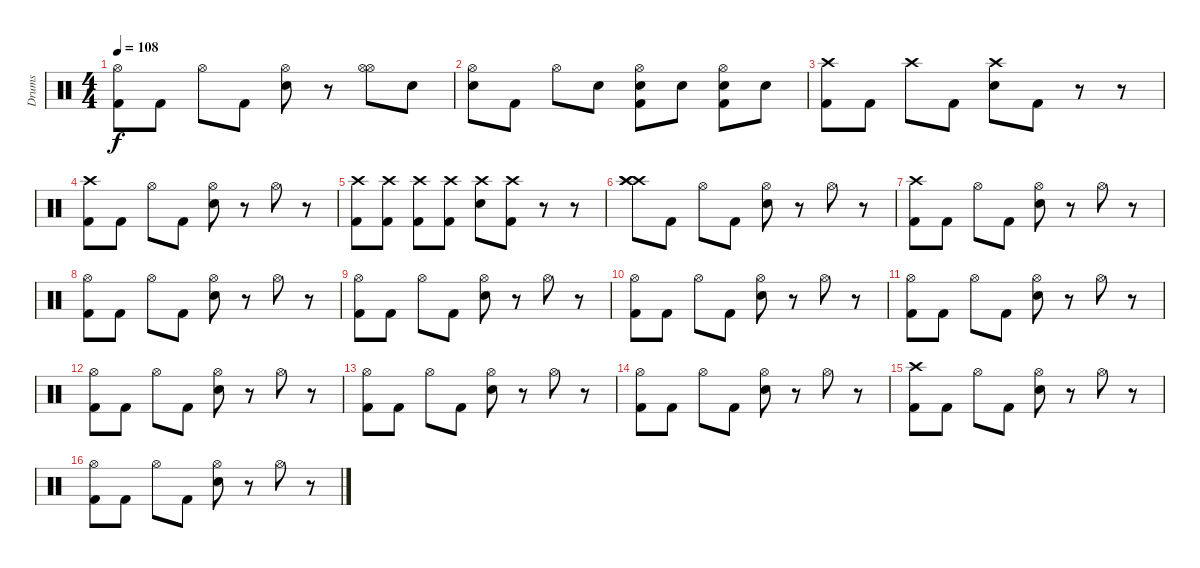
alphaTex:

\track ("Drums" "Drums") {instrument percussion}
\staff {score}
\articulation defaults
\ts (4 4)
\tempo 108
\clef neutral
\ks c
("Hi-Hat (open)" "Kick (hit) 2").8{dy f} "Kick (hit) 2".8 "Hi-Hat (open)".8 "Kick (hit) 2".8 ("Hi-Hat (open)" "Snare (hit) 2").8 r.8 ("Hi-Hat (open)" "Hi-Hat (open)").8 "Snare (hit) 2".8 |
("Hi-Hat (open)" "Snare (hit) 2").8 "Kick (hit) 2".8 "Hi-Hat (open)".8 "Snare (hit) 2".8 ("Kick (hit) 2" "Hi-Hat (open)" "Snare (hit) 2").8 "Snare (hit) 2".8 ("Kick (hit) 2" "Hi-Hat (open)" "Snare (hit) 2").8 "Snare (hit) 2".8 |
("Crash high (hit)" "Kick (hit) 2").8 "Kick (hit) 2".8 "Crash high (hit)".8 "Kick (hit) 2".8 ("Crash high (hit)" "Snare (hit) 2").8 "Kick (hit) 2".8 r.8 r.8 |
("Crash high (hit)" "Kick (hit) 2").8 "Kick (hit) 2".8 "Hi-Hat (open)".8 "Kick (hit) 2".8 ("Hi-Hat (open)" "Snare (hit) 2").8 r.8 "Hi-Hat (open)".8 r.8 |
("Crash high (hit)" "Kick (hit) 2").8 ("Crash high (hit)" "Kick (hit) 2").8 ("Crash high (hit)" "Kick (hit) 2").8 ("Crash high (hit)" "Kick (hit) 2").8 ("Crash high (hit)" "Snare (hit) 2").8 ("Crash high (hit)" "Kick (hit) 2").8 r.8 r.8 |
("Crash high (hit)" "Crash high (hit)" "Crash high (hit)").8 "Kick (hit) 2".8 "Hi-Hat (open)".8 "Kick (hit) 2".8 ("Hi-Hat (open)" "Snare (hit) 2").8 r.8 "Hi-Hat (open)".8 r.8 |
("Crash high (hit)" "Kick (hit) 2").8 "Kick (hit) 2".8 "Hi-Hat (open)".8 "Kick (hit) 2".8 ("Hi-Hat (open)" "Snare (hit) 2").8 r.8 "Hi-Hat (open)".8 r.8 |
("Hi-Hat (open)" "Kick (hit) 2").8 "Kick (hit) 2".8 "Hi-Hat (open)".8 "Kick (hit) 2".8 ("Hi-Hat (open)" "Snare (hit) 2").8 r.8 "Hi-Hat (open)".8 r.8 |
("Hi-Hat (open)" "Kick (hit) 2").8 "Kick (hit) 2".8 "Hi-Hat (open)".8 "Kick (hit) 2".8 ("Hi-Hat (open)" "Snare (hit) 2").8 r.8 "Hi-Hat (open)".8 r.8 |
("Hi-Hat (open)" "Kick (hit) 2").8 "Kick (hit) 2".8 "Hi-Hat (open)".8 "Kick (hit) 2".8 ("Hi-Hat (open)" "Snare (hit) 2").8 r.8 "Hi-Hat (open)".8 r.8 |
("Hi-Hat (open)" "Kick (hit) 2").8 "Kick (hit) 2".8 "Hi-Hat (open)".8 "Kick (hit) 2".8 ("Hi-Hat (open)" "Snare (hit) 2").8 r.8 "Hi-Hat (open)".8 r.8 |
("Hi-Hat (open)" "Kick (hit) 2").8 "Kick (hit) 2".8 "Hi-Hat (open)".8 "Kick (hit) 2".8 ("Hi-Hat (open)" "Snare (hit) 2").8 r.8 "Hi-Hat (open)".8 r.8 |
("Hi-Hat (open)" "Kick (hit) 2").8 "Kick (hit) 2".8 "Hi-Hat (open)".8 "Kick (hit) 2".8 ("Hi-Hat (open)" "Snare (hit) 2").8 r.8 "Hi-Hat (open)".8 r.8 |
("Hi-Hat (open)" "Kick (hit) 2").8 "Kick (hit) 2".8 "Hi-Hat (open)".8 "Kick (hit) 2".8 ("Hi-Hat (open)" "Snare (hit) 2").8 r.8 "Hi-Hat (open)".8 r.8 |
("Crash high (hit)" "Kick (hit) 2").8 "Kick (hit) 2".8 "Hi-Hat (open)".8 "Kick (hit) 2".8 ("Hi-Hat (open)" "Snare (hit) 2").8 r.8 "Hi-Hat (open)".8 r.8 |
("Hi-Hat (open)" "Kick (hit) 2").8 "Kick (hit) 2".8 "Hi-Hat (open)".8 "Kick (hit) 2".8 ("Hi-Hat (open)" "Snare (hit) 2").8 r.8 "Hi-Hat (open)".8 r.8
